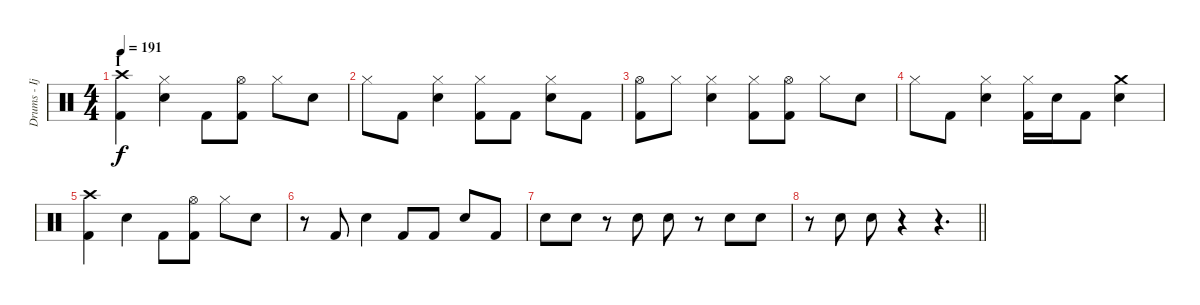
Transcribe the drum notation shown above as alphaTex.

\track ("Drums - Ijichi" "Drums - Ij") {instrument percussion}
\staff
\articulation defaults
\ts (4 4)
\section ("" "I")
\tempo 191
\clef neutral
\ks c
("Crash high (hit)" "Kick (hit) 2").4{dy f} ("Hi-Hat (closed)" "Electric Snare (hit)").4 "Kick (hit) 2".8 ("Hi-Hat (open)" "Kick (hit) 2").8 "Hi-Hat (closed)".8 "Electric Snare (hit)".8 |
"Hi-Hat (closed)".8 "Kick (hit) 2".8 ("Hi-Hat (closed)" "Electric Snare (hit)").4 ("Hi-Hat (closed)" "Kick (hit) 2").8 "Kick (hit) 2".8 ("Hi-Hat (closed)" "Electric Snare (hit)").8 "Kick (hit) 2".8 |
("Hi-Hat (open)" "Kick (hit) 2").8 "Hi-Hat (closed)".8 ("Hi-Hat (closed)" "Electric Snare (hit)").4 ("Hi-Hat (closed)" "Kick (hit) 2").8 ("Hi-Hat (open)" "Kick (hit) 2").8 "Hi-Hat (closed)".8 "Electric Snare (hit)".8 |
"Hi-Hat (closed)".8 "Kick (hit) 2".8 ("Hi-Hat (closed)" "Electric Snare (hit)").4 ("Hi-Hat (closed)" "Kick (hit) 2").16 "Electric Snare (hit)".16 "Kick (hit) 2".8 ("Crash medium (hit)" "Electric Snare (hit)").4 |
("Crash high (hit)" "Kick (hit) 2").4 "Electric Snare (hit)".4 "Kick (hit) 2".8 ("Hi-Hat (open)" "Kick (hit) 2").8 "Hi-Hat (closed)".8 "Electric Snare (hit)".8 |
r.8 "Kick (hit) 2".8 "Electric Snare (hit)".4 "Kick (hit) 2".8 "Kick (hit) 2".8 "Electric Snare (hit)".8 "Kick (hit) 2".8 |
"Electric Snare (hit)".8 "Electric Snare (hit)".8 r.8 "Electric Snare (hit)".8 "Electric Snare (hit)".8 r.8 "Electric Snare (hit)".8 "Electric Snare (hit)".8 |
\barLineRight lightlight
r.8 "Electric Snare (hit)".8 "Electric Snare (hit)".8 r.4 r.4{d}
